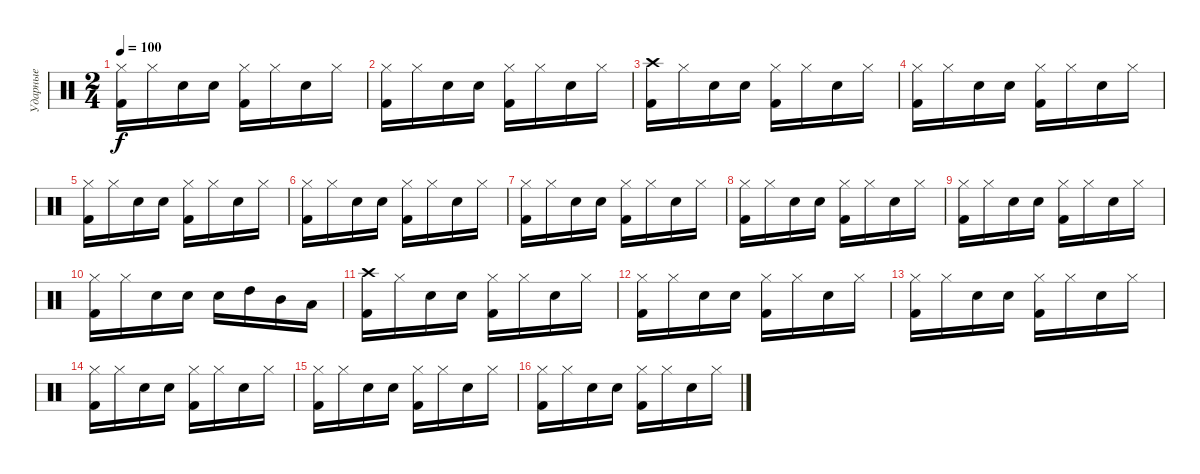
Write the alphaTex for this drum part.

\track ("Ударные" "Ударные") {instrument percussion}
\staff {score}
\articulation defaults
\ts (2 4)
\tempo 100
\clef neutral
\ks c
("Hi-Hat (closed)" "Kick (hit) 2").16{dy f} "Hi-Hat (closed)".16 "Electric Snare (hit)".16 "Electric Snare (hit)".16 ("Kick (hit) 2" "Hi-Hat (closed)").16 "Hi-Hat (closed)".16 "Electric Snare (hit)".16 "Hi-Hat (closed)".16 |
("Hi-Hat (closed)" "Kick (hit) 2").16 "Hi-Hat (closed)".16 "Electric Snare (hit)".16 "Electric Snare (hit)".16 ("Kick (hit) 2" "Hi-Hat (closed)").16 "Hi-Hat (closed)".16 "Electric Snare (hit)".16 "Hi-Hat (closed)".16 |
("Crash high (hit)" "Kick (hit) 2").16 "Hi-Hat (closed)".16 "Electric Snare (hit)".16 "Electric Snare (hit)".16 ("Kick (hit) 2" "Hi-Hat (closed)").16 "Hi-Hat (closed)".16 "Electric Snare (hit)".16 "Hi-Hat (closed)".16 |
("Hi-Hat (closed)" "Kick (hit) 2").16 "Hi-Hat (closed)".16 "Electric Snare (hit)".16 "Electric Snare (hit)".16 ("Kick (hit) 2" "Hi-Hat (closed)").16 "Hi-Hat (closed)".16 "Electric Snare (hit)".16 "Hi-Hat (closed)".16 |
("Hi-Hat (closed)" "Kick (hit) 2").16 "Hi-Hat (closed)".16 "Electric Snare (hit)".16 "Electric Snare (hit)".16 ("Kick (hit) 2" "Hi-Hat (closed)").16 "Hi-Hat (closed)".16 "Electric Snare (hit)".16 "Hi-Hat (closed)".16 |
("Hi-Hat (closed)" "Kick (hit) 2").16 "Hi-Hat (closed)".16 "Electric Snare (hit)".16 "Electric Snare (hit)".16 ("Kick (hit) 2" "Hi-Hat (closed)").16 "Hi-Hat (closed)".16 "Electric Snare (hit)".16 "Hi-Hat (closed)".16 |
("Hi-Hat (closed)" "Kick (hit) 2").16 "Hi-Hat (closed)".16 "Electric Snare (hit)".16 "Electric Snare (hit)".16 ("Kick (hit) 2" "Hi-Hat (closed)").16 "Hi-Hat (closed)".16 "Electric Snare (hit)".16 "Hi-Hat (closed)".16 |
("Hi-Hat (closed)" "Kick (hit) 2").16 "Hi-Hat (closed)".16 "Electric Snare (hit)".16 "Electric Snare (hit)".16 ("Kick (hit) 2" "Hi-Hat (closed)").16 "Hi-Hat (closed)".16 "Electric Snare (hit)".16 "Hi-Hat (closed)".16 |
("Hi-Hat (closed)" "Kick (hit) 2").16 "Hi-Hat (closed)".16 "Electric Snare (hit)".16 "Electric Snare (hit)".16 ("Kick (hit) 2" "Hi-Hat (closed)").16 "Hi-Hat (closed)".16 "Electric Snare (hit)".16 "Hi-Hat (closed)".16 |
("Hi-Hat (closed)" "Kick (hit) 2").16 "Hi-Hat (closed)".16 "Electric Snare (hit)".16 "Electric Snare (hit)".16 "Electric Snare (hit)".16 "High Tom (hit)".16 "Mid Tom (hit)".16 "Low Tom (hit)".16 |
("Crash high (hit)" "Kick (hit) 2").16 "Hi-Hat (closed)".16 "Electric Snare (hit)".16 "Electric Snare (hit)".16 ("Kick (hit) 2" "Hi-Hat (closed)").16 "Hi-Hat (closed)".16 "Electric Snare (hit)".16 "Hi-Hat (closed)".16 |
("Hi-Hat (closed)" "Kick (hit) 2").16 "Hi-Hat (closed)".16 "Electric Snare (hit)".16 "Electric Snare (hit)".16 ("Kick (hit) 2" "Hi-Hat (closed)").16 "Hi-Hat (closed)".16 "Electric Snare (hit)".16 "Hi-Hat (closed)".16 |
("Hi-Hat (closed)" "Kick (hit) 2").16 "Hi-Hat (closed)".16 "Electric Snare (hit)".16 "Electric Snare (hit)".16 ("Kick (hit) 2" "Hi-Hat (closed)").16 "Hi-Hat (closed)".16 "Electric Snare (hit)".16 "Hi-Hat (closed)".16 |
("Hi-Hat (closed)" "Kick (hit) 2").16 "Hi-Hat (closed)".16 "Electric Snare (hit)".16 "Electric Snare (hit)".16 ("Kick (hit) 2" "Hi-Hat (closed)").16 "Hi-Hat (closed)".16 "Electric Snare (hit)".16 "Hi-Hat (closed)".16 |
("Hi-Hat (closed)" "Kick (hit) 2").16 "Hi-Hat (closed)".16 "Electric Snare (hit)".16 "Electric Snare (hit)".16 ("Kick (hit) 2" "Hi-Hat (closed)").16 "Hi-Hat (closed)".16 "Electric Snare (hit)".16 "Hi-Hat (closed)".16 |
("Hi-Hat (closed)" "Kick (hit) 2").16 "Hi-Hat (closed)".16 "Electric Snare (hit)".16 "Electric Snare (hit)".16 ("Kick (hit) 2" "Hi-Hat (closed)").16 "Hi-Hat (closed)".16 "Electric Snare (hit)".16 "Hi-Hat (closed)".16
